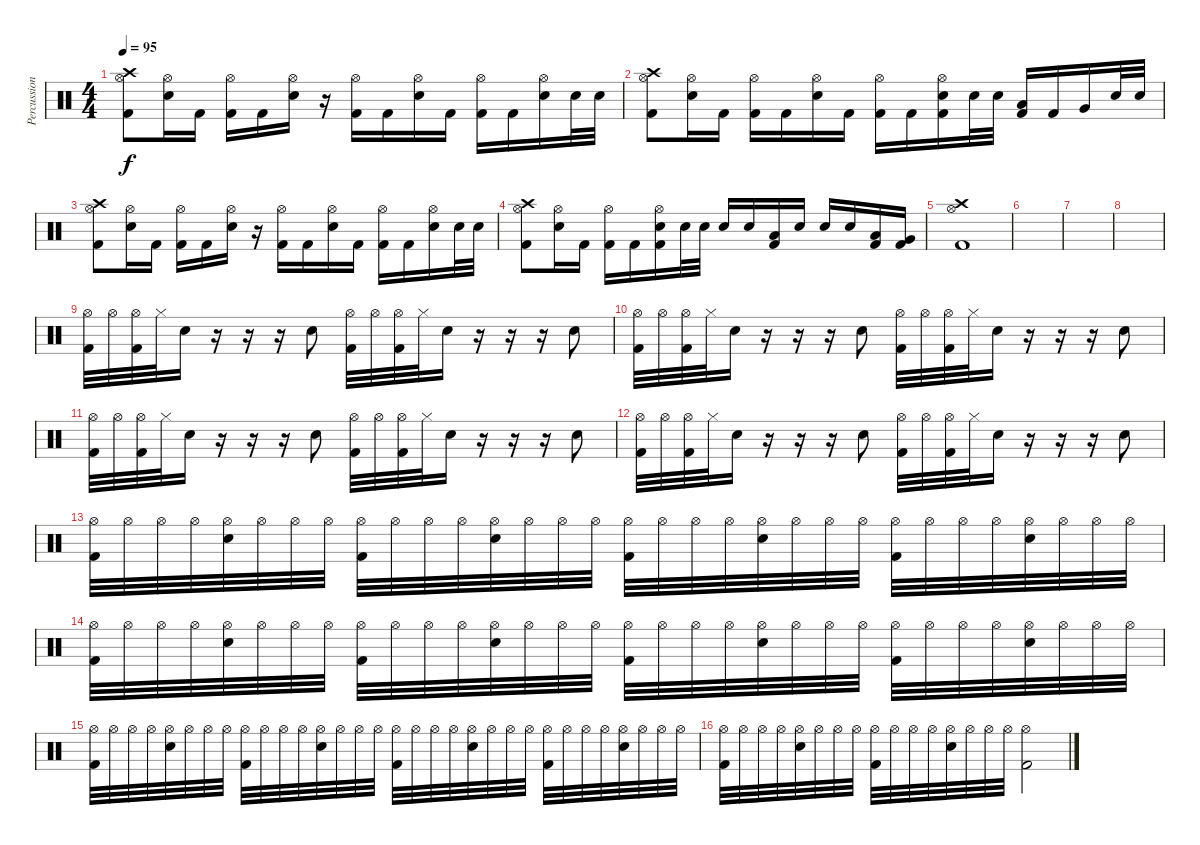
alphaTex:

\track ("Percussion" "Percussion") {instrument percussion}
\staff {score}
\articulation defaults
\ts (4 4)
\tempo 95
\clef neutral
\ks c
("Crash high (hit)" "Hi-Hat (open)" "Kick (hit) 2").8{dy f} ("Hi-Hat (open)" "Electric Snare (hit)").16 "Kick (hit) 2".16 ("Hi-Hat (open)" "Kick (hit) 2").16 "Kick (hit) 2".16 ("Hi-Hat (open)" "Electric Snare (hit)").16 r.16 ("Hi-Hat (open)" "Kick (hit) 2").16 "Kick (hit) 2".16 ("Hi-Hat (open)" "Electric Snare (hit)").16 "Kick (hit) 2".16 ("Hi-Hat (open)" "Kick (hit) 2").16 "Kick (hit) 2".16 ("Hi-Hat (open)" "Electric Snare (hit)").16 "Electric Snare (hit)".32 "Electric Snare (hit)".32 |
("Crash high (hit)" "Hi-Hat (open)" "Kick (hit) 2").8 ("Hi-Hat (open)" "Electric Snare (hit)").16 "Kick (hit) 2".16 ("Hi-Hat (open)" "Kick (hit) 2").16 "Kick (hit) 2".16 ("Hi-Hat (open)" "Electric Snare (hit)").16 "Kick (hit) 2".16 ("Hi-Hat (open)" "Kick (hit) 2").16 "Kick (hit) 2".16 ("Hi-Hat (open)" "Electric Snare (hit)" "Kick (hit) 2").16 "Electric Snare (hit)".32 "Electric Snare (hit)".32 ("Low Tom (hit)" "Kick (hit) 2").16 "Kick (hit) 2".16 "Very Low Tom (hit)".16 "Electric Snare (hit)".32 "Electric Snare (hit)".32 |
("Crash high (hit)" "Hi-Hat (open)" "Kick (hit) 2").8 ("Hi-Hat (open)" "Electric Snare (hit)").16 "Kick (hit) 2".16 ("Hi-Hat (open)" "Kick (hit) 2").16 "Kick (hit) 2".16 ("Hi-Hat (open)" "Electric Snare (hit)").16 r.16 ("Hi-Hat (open)" "Kick (hit) 2").16 "Kick (hit) 2".16 ("Hi-Hat (open)" "Electric Snare (hit)").16 "Kick (hit) 2".16 ("Hi-Hat (open)" "Kick (hit) 2").16 "Kick (hit) 2".16 ("Hi-Hat (open)" "Electric Snare (hit)").16 "Electric Snare (hit)".32 "Electric Snare (hit)".32 |
("Crash high (hit)" "Hi-Hat (open)" "Kick (hit) 2").8 ("Hi-Hat (open)" "Electric Snare (hit)").16 "Kick (hit) 2".16 ("Hi-Hat (open)" "Kick (hit) 2").16 "Kick (hit) 2".16 ("Hi-Hat (open)" "Electric Snare (hit)" "Kick (hit) 2").16 "Electric Snare (hit)".32 "Electric Snare (hit)".32 "Electric Snare (hit)".16 "Electric Snare (hit)".16 ("Low Tom (hit)" "Kick (hit) 2").16 "Electric Snare (hit)".16 "Electric Snare (hit)".16 "Electric Snare (hit)".16 ("Low Tom (hit)" "Kick (hit) 2").16 ("Very Low Tom (hit)" "Kick (hit) 2").16 |
("Crash high (hit)" "Hi-Hat (open)" "Kick (hit) 2").1 |
|
|
|
("Hi-Hat (open)" "Kick (hit) 2").32 "Hi-Hat (open)".32 ("Hi-Hat (open)" "Kick (hit) 2").32 "Hi-Hat (closed)".32 "Electric Snare (hit)".16 r.16 r.16 r.16 "Electric Snare (hit)".8 ("Hi-Hat (open)" "Kick (hit) 2").32 "Hi-Hat (open)".32 ("Hi-Hat (open)" "Kick (hit) 2").32 "Hi-Hat (closed)".32 "Electric Snare (hit)".16 r.16 r.16 r.16 "Electric Snare (hit)".8 |
("Hi-Hat (open)" "Kick (hit) 2").32 "Hi-Hat (open)".32 ("Hi-Hat (open)" "Kick (hit) 2").32 "Hi-Hat (closed)".32 "Electric Snare (hit)".16 r.16 r.16 r.16 "Electric Snare (hit)".8 ("Hi-Hat (open)" "Kick (hit) 2").32 "Hi-Hat (open)".32 ("Hi-Hat (open)" "Kick (hit) 2").32 "Hi-Hat (closed)".32 "Electric Snare (hit)".16 r.16 r.16 r.16 "Electric Snare (hit)".8 |
("Hi-Hat (open)" "Kick (hit) 2").32 "Hi-Hat (open)".32 ("Hi-Hat (open)" "Kick (hit) 2").32 "Hi-Hat (closed)".32 "Electric Snare (hit)".16 r.16 r.16 r.16 "Electric Snare (hit)".8 ("Hi-Hat (open)" "Kick (hit) 2").32 "Hi-Hat (open)".32 ("Hi-Hat (open)" "Kick (hit) 2").32 "Hi-Hat (closed)".32 "Electric Snare (hit)".16 r.16 r.16 r.16 "Electric Snare (hit)".8 |
("Hi-Hat (open)" "Kick (hit) 2").32 "Hi-Hat (open)".32 ("Hi-Hat (open)" "Kick (hit) 2").32 "Hi-Hat (closed)".32 "Electric Snare (hit)".16 r.16 r.16 r.16 "Electric Snare (hit)".8 ("Hi-Hat (open)" "Kick (hit) 2").32 "Hi-Hat (open)".32 ("Hi-Hat (open)" "Kick (hit) 2").32 "Hi-Hat (closed)".32 "Electric Snare (hit)".16 r.16 r.16 r.16 "Electric Snare (hit)".8 |
("Hi-Hat (open)" "Kick (hit) 2").32 "Hi-Hat (open)".32 "Hi-Hat (open)".32 "Hi-Hat (open)".32 ("Hi-Hat (open)" "Electric Snare (hit)").32 "Hi-Hat (open)".32 "Hi-Hat (open)".32 "Hi-Hat (open)".32 ("Hi-Hat (open)" "Kick (hit) 2").32 "Hi-Hat (open)".32 "Hi-Hat (open)".32 "Hi-Hat (open)".32 ("Hi-Hat (open)" "Electric Snare (hit)").32 "Hi-Hat (open)".32 "Hi-Hat (open)".32 "Hi-Hat (open)".32 ("Hi-Hat (open)" "Kick (hit) 2").32 "Hi-Hat (open)".32 "Hi-Hat (open)".32 "Hi-Hat (open)".32 ("Hi-Hat (open)" "Electric Snare (hit)").32 "Hi-Hat (open)".32 "Hi-Hat (open)".32 "Hi-Hat (open)".32 ("Hi-Hat (open)" "Kick (hit) 2").32 "Hi-Hat (open)".32 "Hi-Hat (open)".32 "Hi-Hat (open)".32 ("Hi-Hat (open)" "Electric Snare (hit)").32 "Hi-Hat (open)".32 "Hi-Hat (open)".32 "Hi-Hat (open)".32 |
("Hi-Hat (open)" "Kick (hit) 2").32 "Hi-Hat (open)".32 "Hi-Hat (open)".32 "Hi-Hat (open)".32 ("Hi-Hat (open)" "Electric Snare (hit)").32 "Hi-Hat (open)".32 "Hi-Hat (open)".32 "Hi-Hat (open)".32 ("Hi-Hat (open)" "Kick (hit) 2").32 "Hi-Hat (open)".32 "Hi-Hat (open)".32 "Hi-Hat (open)".32 ("Hi-Hat (open)" "Electric Snare (hit)").32 "Hi-Hat (open)".32 "Hi-Hat (open)".32 "Hi-Hat (open)".32 ("Hi-Hat (open)" "Kick (hit) 2").32 "Hi-Hat (open)".32 "Hi-Hat (open)".32 "Hi-Hat (open)".32 ("Hi-Hat (open)" "Electric Snare (hit)").32 "Hi-Hat (open)".32 "Hi-Hat (open)".32 "Hi-Hat (open)".32 ("Hi-Hat (open)" "Kick (hit) 2").32 "Hi-Hat (open)".32 "Hi-Hat (open)".32 "Hi-Hat (open)".32 ("Hi-Hat (open)" "Electric Snare (hit)").32 "Hi-Hat (open)".32 "Hi-Hat (open)".32 "Hi-Hat (open)".32 |
("Hi-Hat (open)" "Kick (hit) 2").32 "Hi-Hat (open)".32 "Hi-Hat (open)".32 "Hi-Hat (open)".32 ("Hi-Hat (open)" "Electric Snare (hit)").32 "Hi-Hat (open)".32 "Hi-Hat (open)".32 "Hi-Hat (open)".32 ("Hi-Hat (open)" "Kick (hit) 2").32 "Hi-Hat (open)".32 "Hi-Hat (open)".32 "Hi-Hat (open)".32 ("Hi-Hat (open)" "Electric Snare (hit)").32 "Hi-Hat (open)".32 "Hi-Hat (open)".32 "Hi-Hat (open)".32 ("Hi-Hat (open)" "Kick (hit) 2").32 "Hi-Hat (open)".32 "Hi-Hat (open)".32 "Hi-Hat (open)".32 ("Hi-Hat (open)" "Electric Snare (hit)").32 "Hi-Hat (open)".32 "Hi-Hat (open)".32 "Hi-Hat (open)".32 ("Hi-Hat (open)" "Kick (hit) 2").32 "Hi-Hat (open)".32 "Hi-Hat (open)".32 "Hi-Hat (open)".32 ("Hi-Hat (open)" "Electric Snare (hit)").32 "Hi-Hat (open)".32 "Hi-Hat (open)".32 "Hi-Hat (open)".32 |
("Hi-Hat (open)" "Kick (hit) 2").32 "Hi-Hat (open)".32 "Hi-Hat (open)".32 "Hi-Hat (open)".32 ("Hi-Hat (open)" "Electric Snare (hit)").32 "Hi-Hat (open)".32 "Hi-Hat (open)".32 "Hi-Hat (open)".32 ("Hi-Hat (open)" "Kick (hit) 2").32 "Hi-Hat (open)".32 "Hi-Hat (open)".32 "Hi-Hat (open)".32 ("Hi-Hat (open)" "Electric Snare (hit)").32 "Hi-Hat (open)".32 "Hi-Hat (open)".32 "Hi-Hat (open)".32 ("Hi-Hat (open)" "Kick (hit) 2").2
